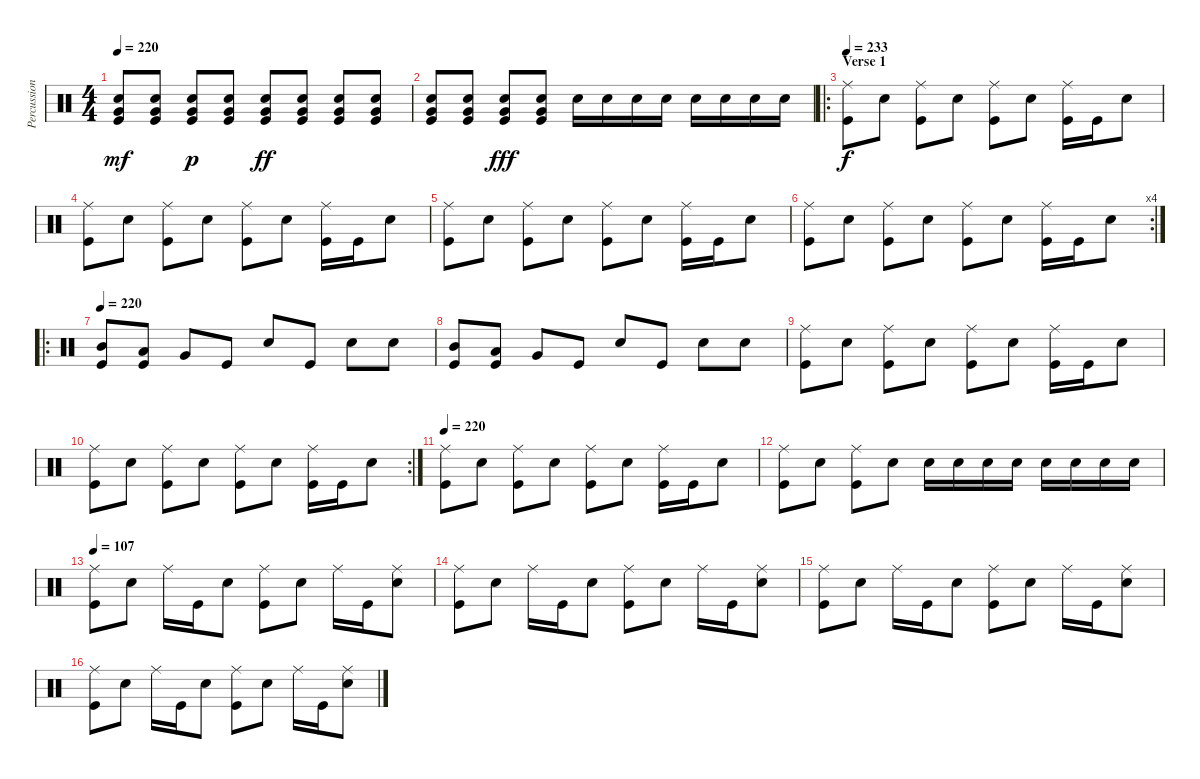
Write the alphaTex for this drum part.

\track ("Percussion" "Percussion") {instrument percussion}
\staff {score}
\articulation defaults
\ts (4 4)
\tempo 220
\clef neutral
\ks c
("Electric Snare (hit)" "Very Low Tom (hit)" "Kick (hit)").8{dy mf} ("Electric Snare (hit)" "Very Low Tom (hit)" "Kick (hit)").8 ("Electric Snare (hit)" "Very Low Tom (hit)" "Kick (hit)").8{dy p} ("Electric Snare (hit)" "Very Low Tom (hit)" "Kick (hit)").8 ("Electric Snare (hit)" "Very Low Tom (hit)" "Kick (hit)").8{dy ff} ("Electric Snare (hit)" "Very Low Tom (hit)" "Kick (hit)").8 ("Electric Snare (hit)" "Very Low Tom (hit)" "Kick (hit)").8 ("Electric Snare (hit)" "Very Low Tom (hit)" "Kick (hit)").8 |
("Electric Snare (hit)" "Very Low Tom (hit)" "Kick (hit)").8 ("Electric Snare (hit)" "Very Low Tom (hit)" "Kick (hit)").8 ("Electric Snare (hit)" "Very Low Tom (hit)" "Kick (hit)").8{dy fff} ("Electric Snare (hit)" "Very Low Tom (hit)" "Kick (hit)").8 "Electric Snare (hit)".16 "Electric Snare (hit)".16 "Electric Snare (hit)".16 "Electric Snare (hit)".16 "Electric Snare (hit)".16 "Electric Snare (hit)".16 "Electric Snare (hit)".16 "Electric Snare (hit)".16 |
\ro
\section ("" "Verse 1")
\tempo 233
("Ride (middle)" "Kick (hit)").8{dy f} "Electric Snare (hit)".8 ("Ride (middle)" "Kick (hit)").8 "Electric Snare (hit)".8 ("Ride (middle)" "Kick (hit)").8 "Electric Snare (hit)".8 ("Ride (middle)" "Kick (hit)").16 "Kick (hit)".16 "Electric Snare (hit)".8 |
("Ride (middle)" "Kick (hit)").8 "Electric Snare (hit)".8 ("Ride (middle)" "Kick (hit)").8 "Electric Snare (hit)".8 ("Ride (middle)" "Kick (hit)").8 "Electric Snare (hit)".8 ("Ride (middle)" "Kick (hit)").16 "Kick (hit)".16 "Electric Snare (hit)".8 |
("Ride (middle)" "Kick (hit)").8 "Electric Snare (hit)".8 ("Ride (middle)" "Kick (hit)").8 "Electric Snare (hit)".8 ("Ride (middle)" "Kick (hit)").8 "Electric Snare (hit)".8 ("Ride (middle)" "Kick (hit)").16 "Kick (hit)".16 "Electric Snare (hit)".8 |
\rc 4
("Ride (middle)" "Kick (hit)").8 "Electric Snare (hit)".8 ("Ride (middle)" "Kick (hit)").8 "Electric Snare (hit)".8 ("Ride (middle)" "Kick (hit)").8 "Electric Snare (hit)".8 ("Ride (middle)" "Kick (hit)").16 "Kick (hit)".16 "Electric Snare (hit)".8 |
\ro
\tempo 220
("Mid Tom (hit)" "Kick (hit)").8 ("Low Tom (hit)" "Kick (hit)").8 "Very Low Tom (hit)".8 "Kick (hit)".8 "Electric Snare (hit)".8 "Kick (hit)".8 "Electric Snare (hit)".8 "Electric Snare (hit)".8 |
("Mid Tom (hit)" "Kick (hit)").8 ("Low Tom (hit)" "Kick (hit)").8 "Very Low Tom (hit)".8 "Kick (hit)".8 "Electric Snare (hit)".8 "Kick (hit)".8 "Electric Snare (hit)".8 "Electric Snare (hit)".8 |
("Ride (middle)" "Kick (hit)").8 "Electric Snare (hit)".8 ("Ride (middle)" "Kick (hit)").8 "Electric Snare (hit)".8 ("Ride (middle)" "Kick (hit)").8 "Electric Snare (hit)".8 ("Ride (middle)" "Kick (hit)").16 "Kick (hit)".16 "Electric Snare (hit)".8 |
\rc 2
("Ride (middle)" "Kick (hit)").8 "Electric Snare (hit)".8 ("Ride (middle)" "Kick (hit)").8 "Electric Snare (hit)".8 ("Ride (middle)" "Kick (hit)").8 "Electric Snare (hit)".8 ("Ride (middle)" "Kick (hit)").16 "Kick (hit)".16 "Electric Snare (hit)".8 |
\tempo 220
("Ride (middle)" "Kick (hit)").8 "Electric Snare (hit)".8 ("Ride (middle)" "Kick (hit)").8 "Electric Snare (hit)".8 ("Ride (middle)" "Kick (hit)").8 "Electric Snare (hit)".8 ("Ride (middle)" "Kick (hit)").16 "Kick (hit)".16 "Electric Snare (hit)".8 |
("Ride (middle)" "Kick (hit)").8 "Electric Snare (hit)".8 ("Ride (middle)" "Kick (hit)").8 "Electric Snare (hit)".8 "Electric Snare (hit)".16 "Electric Snare (hit)".16 "Electric Snare (hit)".16 "Electric Snare (hit)".16 "Electric Snare (hit)".16 "Electric Snare (hit)".16 "Electric Snare (hit)".16 "Electric Snare (hit)".16 |
\tempo 107
("Ride (middle)" "Kick (hit)").8 "Electric Snare (hit)".8 "Ride (middle)".16 "Kick (hit)".16 "Electric Snare (hit)".8 ("Ride (middle)" "Kick (hit)").8 "Electric Snare (hit)".8 "Ride (middle)".16 "Kick (hit)".16 ("Ride (middle)" "Electric Snare (hit)").8 |
("Ride (middle)" "Kick (hit)").8 "Electric Snare (hit)".8 "Ride (middle)".16 "Kick (hit)".16 "Electric Snare (hit)".8 ("Ride (middle)" "Kick (hit)").8 "Electric Snare (hit)".8 "Ride (middle)".16 "Kick (hit)".16 ("Ride (middle)" "Electric Snare (hit)").8 |
("Ride (middle)" "Kick (hit)").8 "Electric Snare (hit)".8 "Ride (middle)".16 "Kick (hit)".16 "Electric Snare (hit)".8 ("Ride (middle)" "Kick (hit)").8 "Electric Snare (hit)".8 "Ride (middle)".16 "Kick (hit)".16 ("Ride (middle)" "Electric Snare (hit)").8 |
("Ride (middle)" "Kick (hit)").8 "Electric Snare (hit)".8 "Ride (middle)".16 "Kick (hit)".16 "Electric Snare (hit)".8 ("Ride (middle)" "Kick (hit)").8 "Electric Snare (hit)".8 "Ride (middle)".16 "Kick (hit)".16 ("Ride (middle)" "Electric Snare (hit)").8
